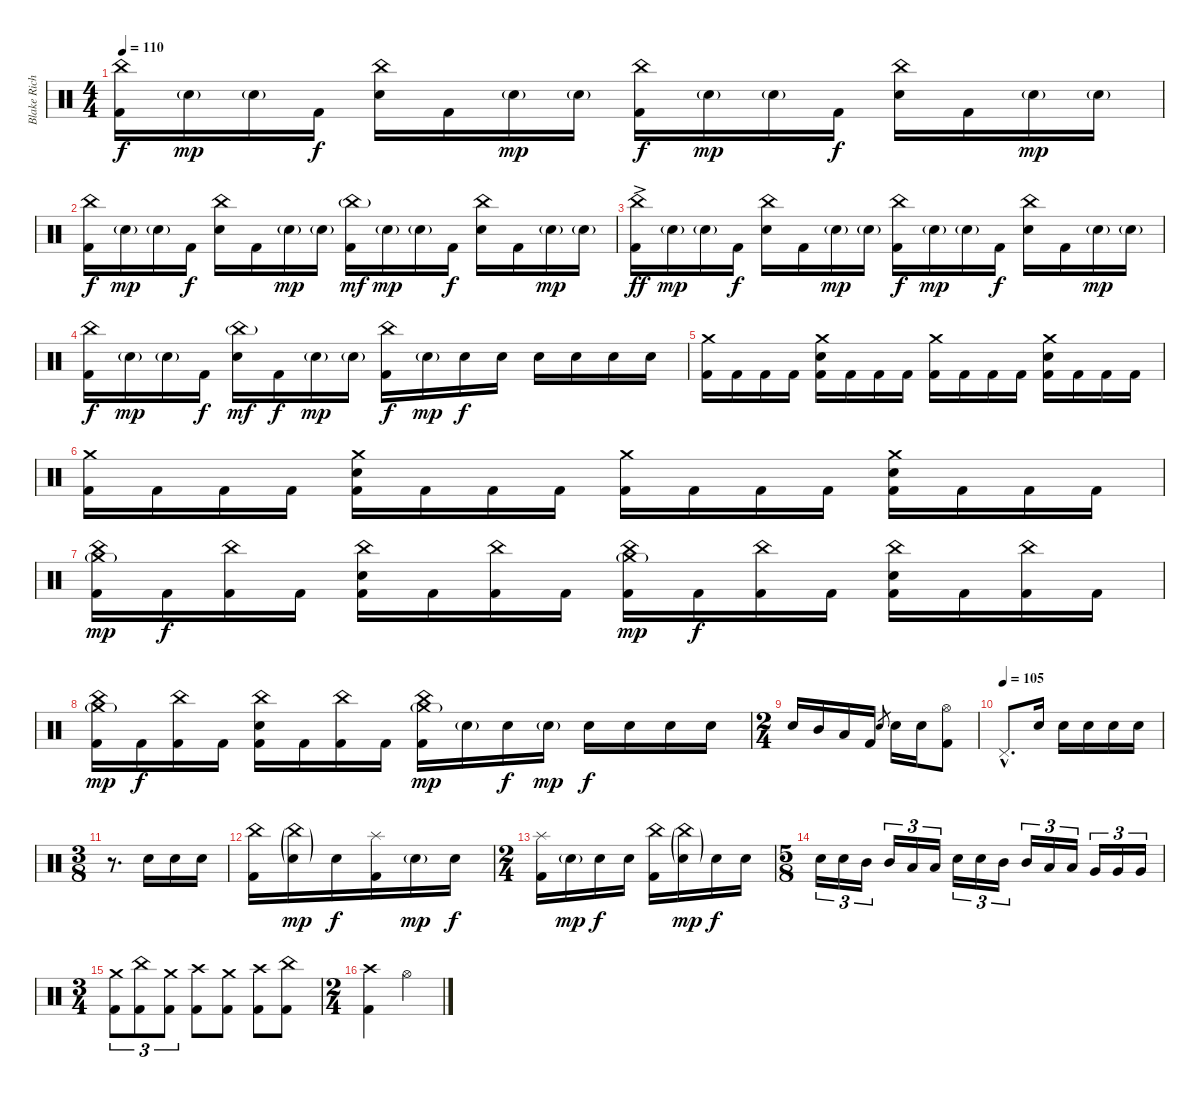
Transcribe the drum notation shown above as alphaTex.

\track ("Blake Richardson - Drums" "Blake Rich") {instrument percussion}
\staff {score}
\articulation defaults
\ts (4 4)
\tempo 110
\clef neutral
\ks c
("China (hit)" "Kick (hit) 2").16{dy f} "Electric Snare (hit)"{g}.16{dy mp} "Electric Snare (hit)"{g}.16 "Kick (hit) 2".16{dy f} ("China (hit)" "Electric Snare (hit)").16 "Kick (hit) 2".16 "Electric Snare (hit)"{g}.16{dy mp} "Electric Snare (hit)"{g}.16 ("China (hit)" "Kick (hit) 2").16{dy f} "Electric Snare (hit)"{g}.16{dy mp} "Electric Snare (hit)"{g}.16 "Kick (hit) 2".16{dy f} ("China (hit)" "Electric Snare (hit)").16 "Kick (hit) 2".16 "Electric Snare (hit)"{g}.16{dy mp} "Electric Snare (hit)"{g}.16 |
("China (hit)" "Kick (hit) 2").16{dy f} "Electric Snare (hit)"{g}.16{dy mp} "Electric Snare (hit)"{g}.16 "Kick (hit) 2".16{dy f} ("China (hit)" "Electric Snare (hit)").16 "Kick (hit) 2".16 "Electric Snare (hit)"{g}.16{dy mp} "Electric Snare (hit)"{g}.16 ("China (hit)"{g} "Kick (hit) 2").16{dy mf} "Electric Snare (hit)"{g}.16{dy mp} "Electric Snare (hit)"{g}.16 "Kick (hit) 2".16{dy f} ("China (hit)" "Electric Snare (hit)").16 "Kick (hit) 2".16 "Electric Snare (hit)"{g}.16{dy mp} "Electric Snare (hit)"{g}.16 |
("China (hit)"{ac} "Kick (hit) 2").16{dy ff} "Electric Snare (hit)"{g}.16{dy mp} "Electric Snare (hit)"{g}.16 "Kick (hit) 2".16{dy f} ("China (hit)" "Electric Snare (hit)").16 "Kick (hit) 2".16 "Electric Snare (hit)"{g}.16{dy mp} "Electric Snare (hit)"{g}.16 ("China (hit)" "Kick (hit) 2").16{dy f} "Electric Snare (hit)"{g}.16{dy mp} "Electric Snare (hit)"{g}.16 "Kick (hit) 2".16{dy f} ("China (hit)" "Electric Snare (hit)").16 "Kick (hit) 2".16 "Electric Snare (hit)"{g}.16{dy mp} "Electric Snare (hit)"{g}.16 |
("China (hit)" "Kick (hit) 2").16{dy f} "Electric Snare (hit)"{g}.16{dy mp} "Electric Snare (hit)"{g}.16 "Kick (hit) 2".16{dy f} ("China (hit)"{g} "Electric Snare (hit)").16{dy mf} "Kick (hit) 2".16{dy f} "Electric Snare (hit)"{g}.16{dy mp} "Electric Snare (hit)"{g}.16 ("China (hit)" "Kick (hit) 2").16{dy f} "Electric Snare (hit)"{g}.16{dy mp} "Electric Snare (hit)".16{dy f} "Electric Snare (hit)".16 "Electric Snare (hit)".16 "Electric Snare (hit)".16 "Electric Snare (hit)".16 "Electric Snare (hit)".16 |
("Crash medium (hit)" "Kick (hit) 2").16 "Kick (hit) 2".16 "Kick (hit) 2".16 "Kick (hit) 2".16 ("Crash medium (hit)" "Electric Snare (hit)" "Kick (hit) 2").16 "Kick (hit) 2".16 "Kick (hit) 2".16 "Kick (hit) 2".16 ("Crash medium (hit)" "Kick (hit) 2").16 "Kick (hit) 2".16 "Kick (hit) 2".16 "Kick (hit) 2".16 ("Crash medium (hit)" "Electric Snare (hit)" "Kick (hit) 2").16 "Kick (hit) 2".16 "Kick (hit) 2".16 "Kick (hit) 2".16 |
("Crash medium (hit)" "Kick (hit) 2").16 "Kick (hit) 2".16 "Kick (hit) 2".16 "Kick (hit) 2".16 ("Crash medium (hit)" "Electric Snare (hit)" "Kick (hit) 2").16 "Kick (hit) 2".16 "Kick (hit) 2".16 "Kick (hit) 2".16 ("Crash medium (hit)" "Kick (hit) 2").16 "Kick (hit) 2".16 "Kick (hit) 2".16 "Kick (hit) 2".16 ("Crash medium (hit)" "Electric Snare (hit)" "Kick (hit) 2").16 "Kick (hit) 2".16 "Kick (hit) 2".16 "Kick (hit) 2".16 |
("China (hit)" "Crash medium (hit)"{g} "Kick (hit) 2").16{dy mp} "Kick (hit) 2".16{dy f} ("China (hit)" "Kick (hit) 2").16 "Kick (hit) 2".16 ("China (hit)" "Electric Snare (hit)" "Kick (hit) 2").16 "Kick (hit) 2".16 ("China (hit)" "Kick (hit) 2").16 "Kick (hit) 2".16 ("China (hit)" "Crash medium (hit)"{g} "Kick (hit) 2").16{dy mp} "Kick (hit) 2".16{dy f} ("China (hit)" "Kick (hit) 2").16 "Kick (hit) 2".16 ("China (hit)" "Electric Snare (hit)" "Kick (hit) 2").16 "Kick (hit) 2".16 ("China (hit)" "Kick (hit) 2").16 "Kick (hit) 2".16 |
("China (hit)" "Crash medium (hit)"{g} "Kick (hit) 2").16{dy mp} "Kick (hit) 2".16{dy f} ("China (hit)" "Kick (hit) 2").16 "Kick (hit) 2".16 ("China (hit)" "Electric Snare (hit)" "Kick (hit) 2").16 "Kick (hit) 2".16 ("China (hit)" "Kick (hit) 2").16 "Kick (hit) 2".16 ("China (hit)" "Crash medium (hit)"{g} "Kick (hit) 2").16{dy mp} "Electric Snare (hit)"{g}.16 "Electric Snare (hit)".16{dy f} "Electric Snare (hit)"{g}.16{dy mp} "Electric Snare (hit)".16{dy f} "Electric Snare (hit)".16 "Electric Snare (hit)".16 "Electric Snare (hit)".16 |
\ts (2 4)
"Electric Snare (hit)".16 "Mid Tom (hit)".16 "Low Tom (hit)".16 "Kick (hit) 2".16 "Electric Snare (hit)".8{gr} "Electric Snare (hit)".16 "Electric Snare (hit)".16 ("Hi-Hat (open)" "Kick (hit) 2").8 |
\tempo (105)
"Pedal Hi-Hat (hit)"{hac}.8{d} "Electric Snare (hit)".16 "Electric Snare (hit)".16 "Electric Snare (hit)".16 "Electric Snare (hit)".16 "Electric Snare (hit)".16 |
\ts (3 8)
r.8{d} "Electric Snare (hit)".16 "Electric Snare (hit)".16 "Electric Snare (hit)".16 |
("China (hit)" "Kick (hit) 2").16 ("China (hit)"{g} "Electric Snare (hit)"{g}).16{dy mp} "Electric Snare (hit)".16{dy f} ("Splash (hit)" "Kick (hit) 2").16 "Electric Snare (hit)"{g}.16{dy mp} "Electric Snare (hit)".16{dy f} |
\ts (2 4)
("Splash (hit)" "Kick (hit) 2").16 "Electric Snare (hit)"{g}.16{dy mp} "Electric Snare (hit)".16{dy f} "Electric Snare (hit)".16 ("China (hit)" "Kick (hit) 2").16 ("China (hit)"{g} "Electric Snare (hit)"{g}).16{dy mp} "Electric Snare (hit)".16{dy f} "Electric Snare (hit)".16 |
\ts (5 8)
"Electric Snare (hit)".16{tu (3 2)} "Electric Snare (hit)".16{tu (3 2)} "Mid Tom (hit)".16{tu (3 2)} "Mid Tom (hit)".16{tu (3 2)} "Low Tom (hit)".16{tu (3 2)} "Low Tom (hit)".16{tu (3 2)} "Electric Snare (hit)".16{tu (3 2)} "Electric Snare (hit)".16{tu (3 2)} "Mid Tom (hit)".16{tu (3 2)} "Mid Tom (hit)".16{tu (3 2)} "Low Tom (hit)".16{tu (3 2)} "Low Tom (hit)".16{tu (3 2)} "Very Low Tom (hit)".16{tu (3 2)} "Very Low Tom (hit)".16{tu (3 2)} "Very Low Tom (hit)".16{tu (3 2)} |
\ts (3 4)
("Crash medium (hit)" "Kick (hit) 2").8{tu (3 2)} ("China (hit)" "Kick (hit) 2").8{tu (3 2)} ("Crash medium (hit)" "Kick (hit) 2").8{tu (3 2)} ("Crash high (hit)" "Kick (hit) 2").8 ("Crash medium (hit)" "Kick (hit) 2").8 ("Crash high (hit)" "Kick (hit) 2").8 ("China (hit)" "Kick (hit) 2").8 |
\ts (2 4)
("Crash high (hit)" "Kick (hit) 2").4 "Hi-Hat (open)".4
